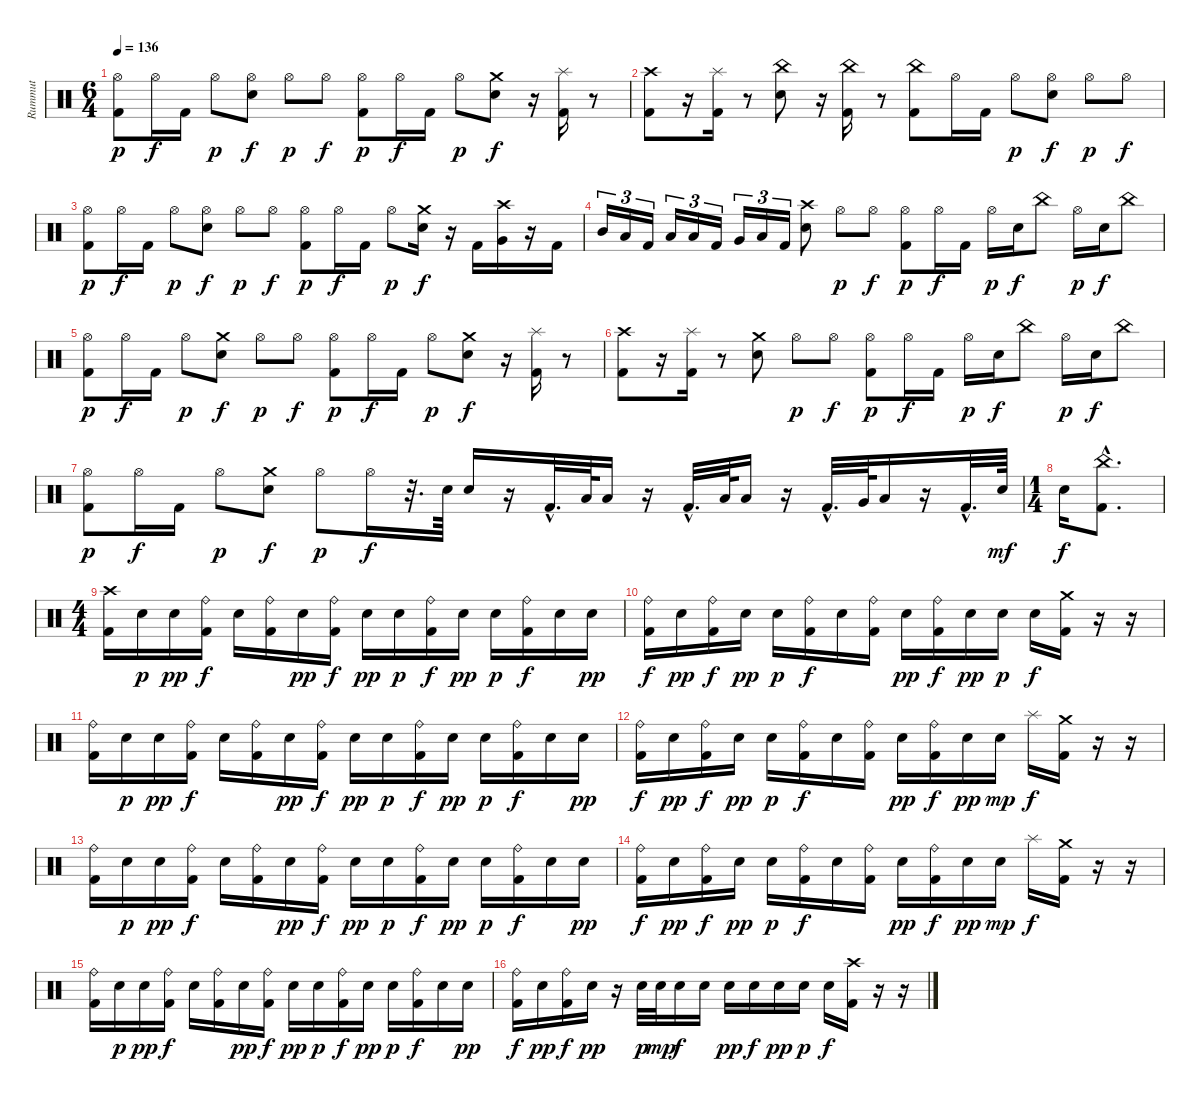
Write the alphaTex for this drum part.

\track ("Rummut" "Rummut") {instrument percussion}
\staff {score}
\articulation defaults
\ts (6 4)
\tempo 136
\clef neutral
\ks c
("Hi-Hat (open)" "Kick (hit) 2").8{dy p} "Hi-Hat (open)".16{dy f} "Kick (hit) 2".16 "Hi-Hat (open)".8{dy p} ("Hi-Hat (open)" "Electric Snare (hit)").8{dy f} "Hi-Hat (open)".8{dy p} "Hi-Hat (open)".8{dy f} ("Hi-Hat (open)" "Kick (hit) 2").8{dy p} "Hi-Hat (open)".16{dy f} "Kick (hit) 2".16 "Hi-Hat (open)".8{dy p} ("Crash medium (hit)" "Electric Snare (hit)").8{dy f} r.16 ("Splash (hit)" "Kick (hit) 2").16 r.8 |
("Crash high (hit)" "Kick (hit) 2").8 r.16 ("Splash (hit)" "Kick (hit) 2").16 r.8 ("China (hit)" "Electric Snare (hit)").8 r.16 ("China (hit)" "Kick (hit) 2").16 r.8 ("China (hit)" "Kick (hit) 2").8 "Hi-Hat (open)".16 "Kick (hit) 2".16 "Hi-Hat (open)".8{dy p} ("Hi-Hat (open)" "Electric Snare (hit)").8{dy f} "Hi-Hat (open)".8{dy p} "Hi-Hat (open)".8{dy f} |
("Hi-Hat (open)" "Kick (hit) 2").8{dy p} "Hi-Hat (open)".16{dy f} "Kick (hit) 2".16 "Hi-Hat (open)".8{dy p} ("Hi-Hat (open)" "Electric Snare (hit)").8{dy f} "Hi-Hat (open)".8{dy p} "Hi-Hat (open)".8{dy f} ("Hi-Hat (open)" "Kick (hit) 2").8{dy p} "Hi-Hat (open)".16{dy f} "Kick (hit) 2".16 "Hi-Hat (open)".8{dy p} ("Crash medium (hit)" "Electric Snare (hit)").16{dy f} r.16 "Kick (hit) 2".16 ("Crash high (hit)" "Very Low Tom (hit)").16 r.16 "Kick (hit) 2".16 |
"Mid Tom (hit)".16{tu (3 2)} "Low Floor Tom (hit)".16{tu (3 2)} "Kick (hit) 2".16{tu (3 2)} "Low Tom (hit)".16{tu (3 2)} "Low Floor Tom (hit)".16{tu (3 2)} "Kick (hit) 2".16{tu (3 2)} "Very Low Tom (hit)".16{tu (3 2)} "Low Floor Tom (hit)".16{tu (3 2)} "Kick (hit) 2".16{tu (3 2)} ("Crash high (hit)" "Electric Snare (hit)").8 "Hi-Hat (open)".8{dy p} "Hi-Hat (open)".8{dy f} ("Hi-Hat (open)" "Kick (hit) 2").8{dy p} "Hi-Hat (open)".16{dy f} "Kick (hit) 2".16 "Hi-Hat (open)".16{dy p} "Electric Snare (hit)".16{dy f} "China (hit)".8 "Hi-Hat (open)".16{dy p} "Electric Snare (hit)".16{dy f} "China (hit)".8 |
("Hi-Hat (open)" "Kick (hit) 2").8{dy p} "Hi-Hat (open)".16{dy f} "Kick (hit) 2".16 "Hi-Hat (open)".8{dy p} ("Crash medium (hit)" "Electric Snare (hit)").8{dy f} "Hi-Hat (open)".8{dy p} "Hi-Hat (open)".8{dy f} ("Hi-Hat (open)" "Kick (hit) 2").8{dy p} "Hi-Hat (open)".16{dy f} "Kick (hit) 2".16 "Hi-Hat (open)".8{dy p} ("Crash medium (hit)" "Electric Snare (hit)").8{dy f} r.16 ("Splash (hit)" "Kick (hit) 2").16 r.8 |
("Crash high (hit)" "Kick (hit) 2").8 r.16 ("Splash (hit)" "Kick (hit) 2").16 r.8 ("Crash medium (hit)" "Electric Snare (hit)").8 "Hi-Hat (open)".8{dy p} "Hi-Hat (open)".8{dy f} ("Hi-Hat (open)" "Kick (hit) 2").8{dy p} "Hi-Hat (open)".16{dy f} "Kick (hit) 2".16 "Hi-Hat (open)".16{dy p} "Electric Snare (hit)".16{dy f} "China (hit)".8 "Hi-Hat (open)".16{dy p} "Electric Snare (hit)".16{dy f} "China (hit)".8 |
("Hi-Hat (open)" "Kick (hit) 2").8{dy p} "Hi-Hat (open)".16{dy f} "Kick (hit) 2".16 "Hi-Hat (open)".8{dy p} ("Crash medium (hit)" "Electric Snare (hit)").8{dy f} "Hi-Hat (open)".8{dy p} "Hi-Hat (open)".16{dy f} r.32{d} "Snare (hit) 2".64 "Electric Snare (hit)".16 r.16 "Kick (hit) 2"{hac}.32{d} "Low Tom (hit)".64 "Low Floor Tom (hit)".16 r.16 "Kick (hit) 2"{hac}.32{d} "Low Tom (hit)".64 "Low Floor Tom (hit)".16 r.16 "Kick (hit) 2"{hac}.32{d} "Very Low Tom (hit)".64 "Low Floor Tom (hit)".16 r.16 "Kick (hit) 2"{hac}.32{d} "Snare (hit) 2".64{dy mf} |
\ts (1 4)
"Electric Snare (hit)".16{dy f} ("China (hit)"{hac} "Kick (hit) 2"{hac}).8{d} |
\ts (4 4)
("Crash high (hit)" "Kick (hit) 2").16 "Electric Snare (hit)".16{dy p} "Electric Snare (hit)".16{dy pp} ("Ride (bell)" "Kick (hit) 2").16{dy f} "Electric Snare (hit)".16 ("Ride (bell)" "Kick (hit) 2").16 "Electric Snare (hit)".16{dy pp} ("Ride (bell)" "Kick (hit) 2").16{dy f} "Electric Snare (hit)".16{dy pp} "Electric Snare (hit)".16{dy p} ("Ride (bell)" "Kick (hit) 2").16{dy f} "Electric Snare (hit)".16{dy pp} "Electric Snare (hit)".16{dy p} ("Ride (bell)" "Kick (hit) 2").16{dy f} "Electric Snare (hit)".16 "Electric Snare (hit)".16{dy pp} |
("Ride (bell)" "Kick (hit) 2").16{dy f} "Electric Snare (hit)".16{dy pp} ("Ride (bell)" "Kick (hit) 2").16{dy f} "Electric Snare (hit)".16{dy pp} "Electric Snare (hit)".16{dy p} ("Ride (bell)" "Kick (hit) 2").16{dy f} "Electric Snare (hit)".16 ("Ride (bell)" "Kick (hit) 2").16 "Electric Snare (hit)".16{dy pp} ("Ride (bell)" "Kick (hit) 2").16{dy f} "Electric Snare (hit)".16{dy pp} "Electric Snare (hit)".16{dy p} "Electric Snare (hit)".16{dy f} ("Crash medium (hit)" "Kick (hit) 2").16 r.16 r.16 |
("Ride (bell)" "Kick (hit) 2").16 "Electric Snare (hit)".16{dy p} "Electric Snare (hit)".16{dy pp} ("Ride (bell)" "Kick (hit) 2").16{dy f} "Electric Snare (hit)".16 ("Ride (bell)" "Kick (hit) 2").16 "Electric Snare (hit)".16{dy pp} ("Ride (bell)" "Kick (hit) 2").16{dy f} "Electric Snare (hit)".16{dy pp} "Electric Snare (hit)".16{dy p} ("Ride (bell)" "Kick (hit) 2").16{dy f} "Electric Snare (hit)".16{dy pp} "Electric Snare (hit)".16{dy p} ("Ride (bell)" "Kick (hit) 2").16{dy f} "Electric Snare (hit)".16 "Electric Snare (hit)".16{dy pp} |
("Ride (bell)" "Kick (hit) 2").16{dy f} "Electric Snare (hit)".16{dy pp} ("Ride (bell)" "Kick (hit) 2").16{dy f} "Electric Snare (hit)".16{dy pp} "Electric Snare (hit)".16{dy p} ("Ride (bell)" "Kick (hit) 2").16{dy f} "Electric Snare (hit)".16 ("Ride (bell)" "Kick (hit) 2").16 "Electric Snare (hit)".16{dy pp} ("Ride (bell)" "Kick (hit) 2").16{dy f} "Electric Snare (hit)".16{dy pp} "Electric Snare (hit)".16{dy mp} "Splash (hit)".16{dy f} ("Crash medium (hit)" "Kick (hit) 2").16 r.16 r.16 |
("Ride (bell)" "Kick (hit) 2").16 "Electric Snare (hit)".16{dy p} "Electric Snare (hit)".16{dy pp} ("Ride (bell)" "Kick (hit) 2").16{dy f} "Electric Snare (hit)".16 ("Ride (bell)" "Kick (hit) 2").16 "Electric Snare (hit)".16{dy pp} ("Ride (bell)" "Kick (hit) 2").16{dy f} "Electric Snare (hit)".16{dy pp} "Electric Snare (hit)".16{dy p} ("Ride (bell)" "Kick (hit) 2").16{dy f} "Electric Snare (hit)".16{dy pp} "Electric Snare (hit)".16{dy p} ("Ride (bell)" "Kick (hit) 2").16{dy f} "Electric Snare (hit)".16 "Electric Snare (hit)".16{dy pp} |
("Ride (bell)" "Kick (hit) 2").16{dy f} "Electric Snare (hit)".16{dy pp} ("Ride (bell)" "Kick (hit) 2").16{dy f} "Electric Snare (hit)".16{dy pp} "Electric Snare (hit)".16{dy p} ("Ride (bell)" "Kick (hit) 2").16{dy f} "Electric Snare (hit)".16 ("Ride (bell)" "Kick (hit) 2").16 "Electric Snare (hit)".16{dy pp} ("Ride (bell)" "Kick (hit) 2").16{dy f} "Electric Snare (hit)".16{dy pp} "Electric Snare (hit)".16{dy mp} "Splash (hit)".16{dy f} ("Crash medium (hit)" "Kick (hit) 2").16 r.16 r.16 |
("Ride (bell)" "Kick (hit) 2").16 "Electric Snare (hit)".16{dy p} "Electric Snare (hit)".16{dy pp} ("Ride (bell)" "Kick (hit) 2").16{dy f} "Electric Snare (hit)".16 ("Ride (bell)" "Kick (hit) 2").16 "Electric Snare (hit)".16{dy pp} ("Ride (bell)" "Kick (hit) 2").16{dy f} "Electric Snare (hit)".16{dy pp} "Electric Snare (hit)".16{dy p} ("Ride (bell)" "Kick (hit) 2").16{dy f} "Electric Snare (hit)".16{dy pp} "Electric Snare (hit)".16{dy p} ("Ride (bell)" "Kick (hit) 2").16{dy f} "Electric Snare (hit)".16 "Electric Snare (hit)".16{dy pp} |
("Ride (bell)" "Kick (hit) 2").16{dy f} "Electric Snare (hit)".16{dy pp} ("Ride (bell)" "Kick (hit) 2").16{dy f} "Electric Snare (hit)".16{dy pp} r.16 "Electric Snare (hit)".32{dy p} "Electric Snare (hit)".32{dy mp} "Electric Snare (hit)".16{dy f} "Electric Snare (hit)".16 "Electric Snare (hit)".16{dy pp} "Electric Snare (hit)".16{dy f} "Electric Snare (hit)".16{dy pp} "Electric Snare (hit)".16{dy p} "Electric Snare (hit)".16{dy f} ("Crash high (hit)" "Kick (hit) 2").16 r.16 r.16
